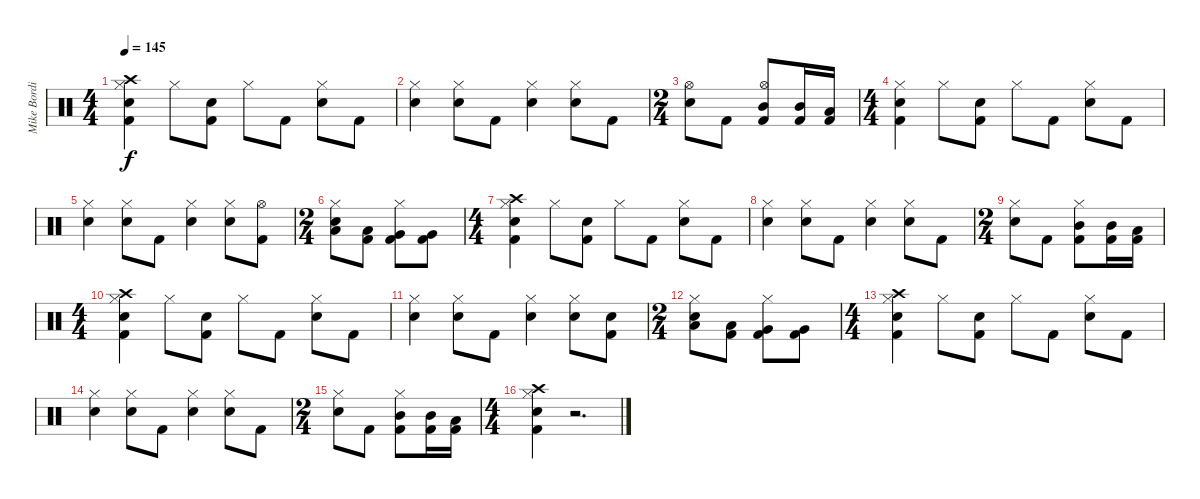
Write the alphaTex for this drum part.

\track ("Mike Bordin" "Mike Bordi") {instrument percussion}
\staff {score}
\articulation defaults
\ts (4 4)
\tempo 145
\clef neutral
\ks c
("Crash high (hit)" "Hi-Hat (closed)" "Electric Snare (hit)" "Kick (hit) 2").4{dy f} "Hi-Hat (closed)".8 ("Electric Snare (hit)" "Kick (hit) 2").8 "Hi-Hat (closed)".8 "Kick (hit) 2".8 ("Hi-Hat (closed)" "Electric Snare (hit)").8 "Kick (hit) 2".8 |
("Hi-Hat (closed)" "Electric Snare (hit)").4 ("Hi-Hat (closed)" "Electric Snare (hit)").8 "Kick (hit) 2".8 ("Hi-Hat (closed)" "Electric Snare (hit)").4 ("Hi-Hat (closed)" "Electric Snare (hit)").8 "Kick (hit) 2".8 |
\ts (2 4)
("Hi-Hat (open)" "Electric Snare (hit)").8 "Kick (hit) 2".8 ("Hi-Hat (open)" "Mid Tom (hit)" "Kick (hit) 2").8 ("Mid Tom (hit)" "Kick (hit) 2").16 ("Low Tom (hit)" "Kick (hit) 2").16 |
\ts (4 4)
("Hi-Hat (closed)" "Electric Snare (hit)" "Kick (hit) 2").4 "Hi-Hat (closed)".8 ("Electric Snare (hit)" "Kick (hit) 2").8 "Hi-Hat (closed)".8 "Kick (hit) 2".8 ("Hi-Hat (closed)" "Electric Snare (hit)").8 "Kick (hit) 2".8 |
("Hi-Hat (closed)" "Electric Snare (hit)").4 ("Hi-Hat (closed)" "Electric Snare (hit)").8 "Kick (hit) 2".8 ("Hi-Hat (closed)" "Electric Snare (hit)").4 ("Hi-Hat (closed)" "Electric Snare (hit)").8 ("Hi-Hat (open)" "Kick (hit) 2").8 |
\ts (2 4)
("Hi-Hat (closed)" "Electric Snare (hit)" "Low Tom (hit)").8 ("Low Tom (hit)" "Kick (hit) 2").8 ("Hi-Hat (closed)" "Very Low Tom (hit)" "Kick (hit) 2").8 ("Very Low Tom (hit)" "Kick (hit) 2").8 |
\ts (4 4)
("Crash high (hit)" "Hi-Hat (closed)" "Electric Snare (hit)" "Kick (hit) 2").4 "Hi-Hat (closed)".8 ("Electric Snare (hit)" "Kick (hit) 2").8 "Hi-Hat (closed)".8 "Kick (hit) 2".8 ("Hi-Hat (closed)" "Electric Snare (hit)").8 "Kick (hit) 2".8 |
("Hi-Hat (closed)" "Electric Snare (hit)").4 ("Hi-Hat (closed)" "Electric Snare (hit)").8 "Kick (hit) 2".8 ("Hi-Hat (closed)" "Electric Snare (hit)").4 ("Hi-Hat (closed)" "Electric Snare (hit)").8 "Kick (hit) 2".8 |
\ts (2 4)
("Hi-Hat (closed)" "Electric Snare (hit)").8 "Kick (hit) 2".8 ("Hi-Hat (closed)" "Mid Tom (hit)" "Kick (hit) 2").8 ("Mid Tom (hit)" "Kick (hit) 2").16 ("Low Tom (hit)" "Kick (hit) 2").16 |
\ts (4 4)
("Crash high (hit)" "Hi-Hat (closed)" "Electric Snare (hit)" "Kick (hit) 2").4 "Hi-Hat (closed)".8 ("Electric Snare (hit)" "Kick (hit) 2").8 "Hi-Hat (closed)".8 "Kick (hit) 2".8 ("Hi-Hat (closed)" "Electric Snare (hit)").8 "Kick (hit) 2".8 |
("Hi-Hat (closed)" "Electric Snare (hit)").4 ("Hi-Hat (closed)" "Electric Snare (hit)").8 "Kick (hit) 2".8 ("Hi-Hat (closed)" "Electric Snare (hit)").4 ("Hi-Hat (closed)" "Electric Snare (hit)").8 ("Electric Snare (hit)" "Kick (hit) 2").8 |
\ts (2 4)
("Hi-Hat (closed)" "Electric Snare (hit)" "Low Tom (hit)").8 ("Low Tom (hit)" "Kick (hit) 2").8 ("Hi-Hat (closed)" "Very Low Tom (hit)" "Kick (hit) 2").8 ("Very Low Tom (hit)" "Kick (hit) 2").8 |
\ts (4 4)
("Crash high (hit)" "Hi-Hat (closed)" "Electric Snare (hit)" "Kick (hit) 2").4 "Hi-Hat (closed)".8 ("Electric Snare (hit)" "Kick (hit) 2").8 "Hi-Hat (closed)".8 "Kick (hit) 2".8 ("Hi-Hat (closed)" "Electric Snare (hit)").8 "Kick (hit) 2".8 |
("Hi-Hat (closed)" "Electric Snare (hit)").4 ("Hi-Hat (closed)" "Electric Snare (hit)").8 "Kick (hit) 2".8 ("Hi-Hat (closed)" "Electric Snare (hit)").4 ("Hi-Hat (closed)" "Electric Snare (hit)").8 "Kick (hit) 2".8 |
\ts (2 4)
("Hi-Hat (closed)" "Electric Snare (hit)").8 "Kick (hit) 2".8 ("Hi-Hat (closed)" "Mid Tom (hit)" "Kick (hit) 2").8 ("Mid Tom (hit)" "Kick (hit) 2").16 ("Low Tom (hit)" "Kick (hit) 2").16 |
\ts (4 4)
("Crash high (hit)" "Hi-Hat (closed)" "Electric Snare (hit)" "Kick (hit) 2").4 r.2{d}
